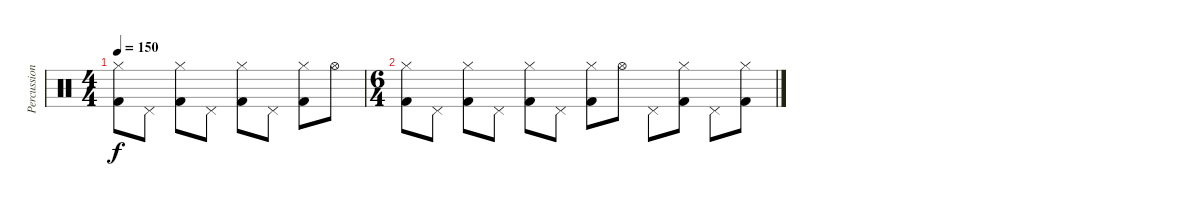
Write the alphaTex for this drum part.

\track ("Percussions" "Percussion") {instrument percussion}
\staff {score}
\articulation defaults
\ts (4 4)
\tempo 150
\clef neutral
\ks c
("Hi-Hat (closed)" "Kick (hit) 2").8{dy f} "Pedal Hi-Hat (hit)".8 ("Hi-Hat (closed)" "Kick (hit) 2").8 "Pedal Hi-Hat (hit)".8 ("Hi-Hat (closed)" "Kick (hit) 2").8 "Pedal Hi-Hat (hit)".8 ("Hi-Hat (closed)" "Kick (hit) 2").8 "Hi-Hat (open)".8 |
\ts (6 4)
("Hi-Hat (closed)" "Kick (hit) 2").8 "Pedal Hi-Hat (hit)".8 ("Hi-Hat (closed)" "Kick (hit) 2").8 "Pedal Hi-Hat (hit)".8 ("Hi-Hat (closed)" "Kick (hit) 2").8 "Pedal Hi-Hat (hit)".8 ("Hi-Hat (closed)" "Kick (hit) 2").8 "Hi-Hat (open)".8 "Pedal Hi-Hat (hit)".8 ("Hi-Hat (closed)" "Kick (hit) 2").8 "Pedal Hi-Hat (hit)".8 ("Hi-Hat (closed)" "Kick (hit) 2").8
